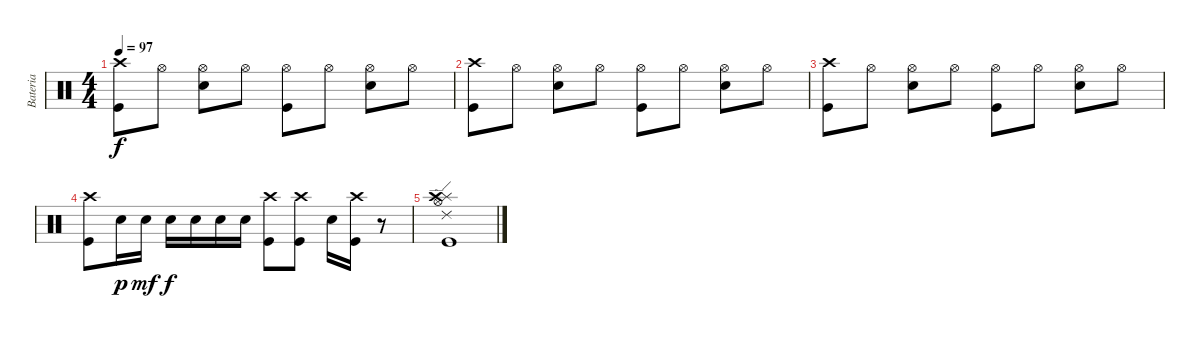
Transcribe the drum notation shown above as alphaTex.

\track ("Bateria" "Bateria") {instrument percussion}
\staff {score}
\articulation defaults
\ts (4 4)
\tempo 97
\clef neutral
\ks c
("Crash high (hit)" "Kick (hit)").8{dy f} "Hi-Hat (open)".8 ("Electric Snare (hit)" "Hi-Hat (open)").8 "Hi-Hat (open)".8 ("Kick (hit)" "Hi-Hat (open)").8 "Hi-Hat (open)".8 ("Electric Snare (hit)" "Hi-Hat (open)").8 "Hi-Hat (open)".8 |
("Crash high (hit)" "Kick (hit)").8 "Hi-Hat (open)".8 ("Electric Snare (hit)" "Hi-Hat (open)").8 "Hi-Hat (open)".8 ("Kick (hit)" "Hi-Hat (open)").8 "Hi-Hat (open)".8 ("Electric Snare (hit)" "Hi-Hat (open)").8 "Hi-Hat (open)".8 |
("Crash high (hit)" "Kick (hit)").8 "Hi-Hat (open)".8 ("Electric Snare (hit)" "Hi-Hat (open)").8 "Hi-Hat (open)".8 ("Kick (hit)" "Hi-Hat (open)").8 "Hi-Hat (open)".8 ("Electric Snare (hit)" "Hi-Hat (open)").8 "Hi-Hat (open)".8 |
("Crash high (hit)" "Kick (hit)").8 "Electric Snare (hit)".16{dy p} "Electric Snare (hit)".16{dy mf} "Electric Snare (hit)".16{dy f} "Electric Snare (hit)".16 "Electric Snare (hit)".16 "Electric Snare (hit)".16 ("Crash high (hit)" "Kick (hit)").8 ("Crash high (hit)" "Kick (hit)").8 "Electric Snare (hit)".16 ("Crash high (hit)" "Kick (hit)").16 r.8 |
("Ride (edge) 2" "Splash (hit)" "Crash high (hit)" "Hi-Hat (open)" "Kick (hit)").1
